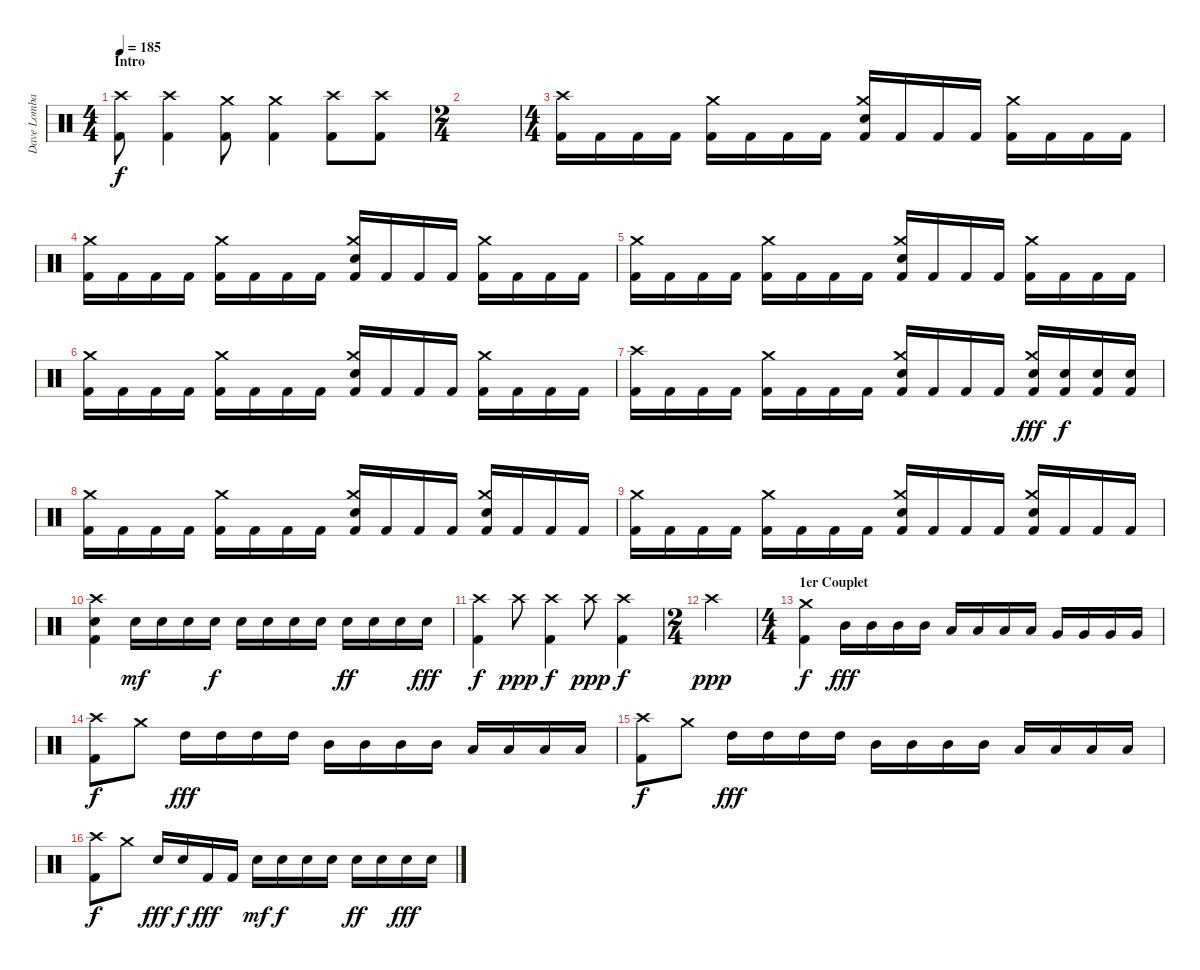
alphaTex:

\track ("Dave Lombardo - Drums" "Dave Lomba") {instrument percussion}
\staff {score}
\articulation defaults
\ts (4 4)
\section ("" "Intro")
\tempo 185
\clef neutral
\ks c
("Crash high (hit)" "Kick (hit) 2").8{dy f} ("Crash high (hit)" "Kick (hit) 2").4 ("Crash medium (hit)" "Kick (hit) 2").8 ("Crash medium (hit)" "Kick (hit) 2").4 ("Crash high (hit)" "Kick (hit) 2").8 ("Crash high (hit)" "Kick (hit) 2").8 |
\ts (2 4)
|
\ts (4 4)
("Crash high (hit)" "Kick (hit) 2").16 "Kick (hit) 2".16 "Kick (hit) 2".16 "Kick (hit) 2".16 ("Crash medium (hit)" "Kick (hit) 2").16 "Kick (hit) 2".16 "Kick (hit) 2".16 "Kick (hit) 2".16 ("Crash medium (hit)" "Electric Snare (hit)" "Kick (hit) 2").16 "Kick (hit) 2".16 "Kick (hit) 2".16 "Kick (hit) 2".16 ("Crash medium (hit)" "Kick (hit) 2").16 "Kick (hit) 2".16 "Kick (hit) 2".16 "Kick (hit) 2".16 |
("Crash medium (hit)" "Kick (hit) 2").16 "Kick (hit) 2".16 "Kick (hit) 2".16 "Kick (hit) 2".16 ("Crash medium (hit)" "Kick (hit) 2").16 "Kick (hit) 2".16 "Kick (hit) 2".16 "Kick (hit) 2".16 ("Crash medium (hit)" "Electric Snare (hit)" "Kick (hit) 2").16 "Kick (hit) 2".16 "Kick (hit) 2".16 "Kick (hit) 2".16 ("Crash medium (hit)" "Kick (hit) 2").16 "Kick (hit) 2".16 "Kick (hit) 2".16 "Kick (hit) 2".16 |
("Crash medium (hit)" "Kick (hit) 2").16 "Kick (hit) 2".16 "Kick (hit) 2".16 "Kick (hit) 2".16 ("Crash medium (hit)" "Kick (hit) 2").16 "Kick (hit) 2".16 "Kick (hit) 2".16 "Kick (hit) 2".16 ("Crash medium (hit)" "Electric Snare (hit)" "Kick (hit) 2").16 "Kick (hit) 2".16 "Kick (hit) 2".16 "Kick (hit) 2".16 ("Crash medium (hit)" "Kick (hit) 2").16 "Kick (hit) 2".16 "Kick (hit) 2".16 "Kick (hit) 2".16 |
("Crash medium (hit)" "Kick (hit) 2").16 "Kick (hit) 2".16 "Kick (hit) 2".16 "Kick (hit) 2".16 ("Crash medium (hit)" "Kick (hit) 2").16 "Kick (hit) 2".16 "Kick (hit) 2".16 "Kick (hit) 2".16 ("Crash medium (hit)" "Electric Snare (hit)" "Kick (hit) 2").16 "Kick (hit) 2".16 "Kick (hit) 2".16 "Kick (hit) 2".16 ("Crash medium (hit)" "Kick (hit) 2").16 "Kick (hit) 2".16 "Kick (hit) 2".16 "Kick (hit) 2".16 |
("Crash high (hit)" "Kick (hit) 2").16 "Kick (hit) 2".16 "Kick (hit) 2".16 "Kick (hit) 2".16 ("Crash medium (hit)" "Kick (hit) 2").16 "Kick (hit) 2".16 "Kick (hit) 2".16 "Kick (hit) 2".16 ("Crash medium (hit)" "Electric Snare (hit)" "Kick (hit) 2").16 "Kick (hit) 2".16 "Kick (hit) 2".16 "Kick (hit) 2".16 ("Crash medium (hit)" "Electric Snare (hit)" "Kick (hit) 2").16{dy fff} ("Electric Snare (hit)" "Kick (hit) 2").16{dy f} ("Electric Snare (hit)" "Kick (hit) 2").16 ("Electric Snare (hit)" "Kick (hit) 2").16 |
("Crash medium (hit)" "Kick (hit) 2").16 "Kick (hit) 2".16 "Kick (hit) 2".16 "Kick (hit) 2".16 ("Crash medium (hit)" "Kick (hit) 2").16 "Kick (hit) 2".16 "Kick (hit) 2".16 "Kick (hit) 2".16 ("Crash medium (hit)" "Electric Snare (hit)" "Kick (hit) 2").16 "Kick (hit) 2".16 "Kick (hit) 2".16 "Kick (hit) 2".16 ("Crash medium (hit)" "Electric Snare (hit)" "Kick (hit) 2").16 "Kick (hit) 2".16 "Kick (hit) 2".16 "Kick (hit) 2".16 |
("Crash medium (hit)" "Kick (hit) 2").16 "Kick (hit) 2".16 "Kick (hit) 2".16 "Kick (hit) 2".16 ("Crash medium (hit)" "Kick (hit) 2").16 "Kick (hit) 2".16 "Kick (hit) 2".16 "Kick (hit) 2".16 ("Crash medium (hit)" "Electric Snare (hit)" "Kick (hit) 2").16 "Kick (hit) 2".16 "Kick (hit) 2".16 "Kick (hit) 2".16 ("Crash medium (hit)" "Electric Snare (hit)" "Kick (hit) 2").16 "Kick (hit) 2".16 "Kick (hit) 2".16 "Kick (hit) 2".16 |
("Crash high (hit)" "Electric Snare (hit)" "Kick (hit) 2").4 "Electric Snare (hit)".16{dy mf} "Electric Snare (hit)".16 "Electric Snare (hit)".16 "Electric Snare (hit)".16{dy f} "Electric Snare (hit)".16 "Electric Snare (hit)".16 "Electric Snare (hit)".16 "Electric Snare (hit)".16 "Electric Snare (hit)".16{dy ff} "Electric Snare (hit)".16 "Electric Snare (hit)".16 "Electric Snare (hit)".16{dy fff} |
("Crash high (hit)" "Kick (hit) 2").4{dy f} "Crash high (hit)".8{dy ppp} ("Crash high (hit)" "Kick (hit) 2").4{dy f} "Crash high (hit)".8{dy ppp} ("Crash high (hit)" "Kick (hit) 2").4{dy f} |
\ts (2 4)
"Crash high (hit)".2{dy ppp} |
\ts (4 4)
\section ("" "1er Couplet")
("Crash medium (hit)" "Kick (hit) 2").4{dy f} "Mid Tom (hit)".16{dy fff} "Mid Tom (hit)".16 "Mid Tom (hit)".16 "Mid Tom (hit)".16 "Low Tom (hit)".16 "Low Tom (hit)".16 "Low Tom (hit)".16 "Low Tom (hit)".16 "Very Low Tom (hit)".16 "Very Low Tom (hit)".16 "Very Low Tom (hit)".16 "Very Low Tom (hit)".16 |
("Crash high (hit)" "Kick (hit) 2").8{dy f} "Crash medium (hit)".8 "High Tom (hit)".16{dy fff} "High Tom (hit)".16 "High Tom (hit)".16 "High Tom (hit)".16 "Mid Tom (hit)".16 "Mid Tom (hit)".16 "Mid Tom (hit)".16 "Mid Tom (hit)".16 "Low Tom (hit)".16 "Low Tom (hit)".16 "Low Tom (hit)".16 "Low Tom (hit)".16 |
("Crash high (hit)" "Kick (hit) 2").8{dy f} "Crash medium (hit)".8 "High Tom (hit)".16{dy fff} "High Tom (hit)".16 "High Tom (hit)".16 "High Tom (hit)".16 "Mid Tom (hit)".16 "Mid Tom (hit)".16 "Mid Tom (hit)".16 "Mid Tom (hit)".16 "Low Tom (hit)".16 "Low Tom (hit)".16 "Low Tom (hit)".16 "Low Tom (hit)".16 |
("Crash high (hit)" "Kick (hit) 2").8{dy f} "Crash medium (hit)".8 "Electric Snare (hit)".16{dy fff} "Electric Snare (hit)".16{dy f} "Kick (hit) 2".16{dy fff} "Kick (hit) 2".16 "Electric Snare (hit)".16{dy mf} "Electric Snare (hit)".16{dy f} "Electric Snare (hit)".16 "Electric Snare (hit)".16 "Electric Snare (hit)".16{dy ff} "Electric Snare (hit)".16 "Electric Snare (hit)".16{dy fff} "Electric Snare (hit)".16
